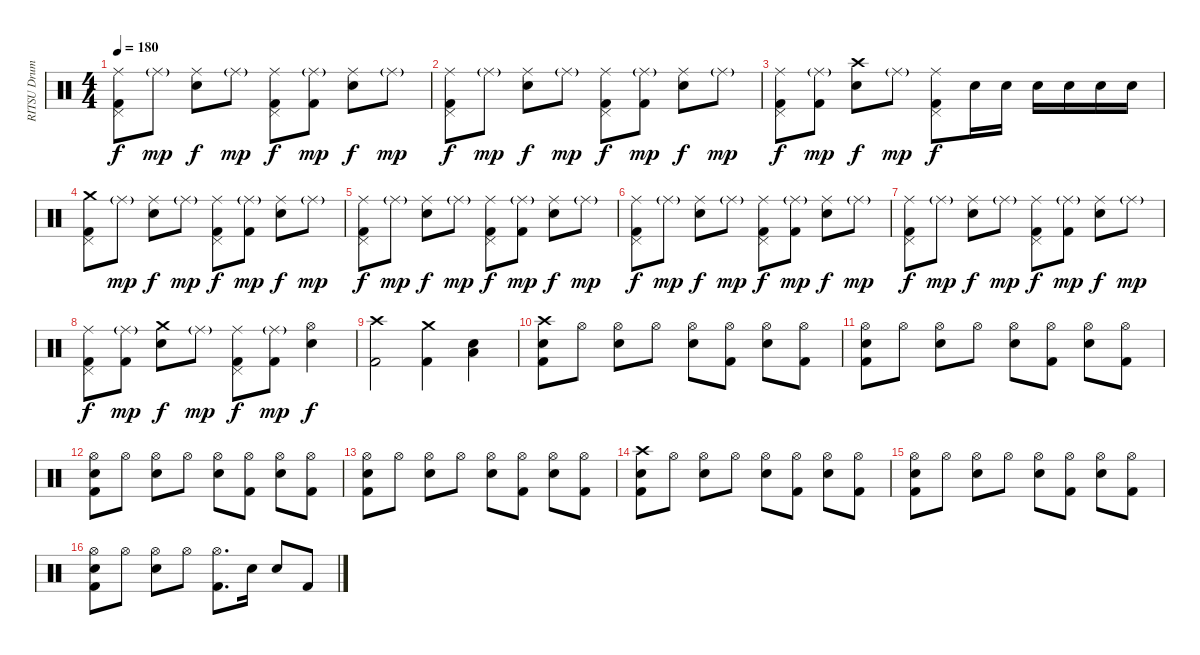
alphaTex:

\track ("RITSU Drums" "RITSU Drum") {instrument percussion}
\staff {score}
\articulation defaults
\ts (4 4)
\tempo 180
\clef neutral
\ks c
("Ride (middle)" "Pedal Hi-Hat (hit)" "Kick (hit) 2").8{dy f} "Ride (middle)"{g}.8{dy mp} ("Ride (middle)" "Electric Snare (hit)").8{dy f} "Ride (middle)"{g}.8{dy mp} ("Ride (middle)" "Pedal Hi-Hat (hit)" "Kick (hit) 2").8{dy f} ("Ride (middle)"{g} "Kick (hit) 2").8{dy mp} ("Ride (middle)" "Electric Snare (hit)").8{dy f} "Ride (middle)"{g}.8{dy mp} |
("Ride (middle)" "Pedal Hi-Hat (hit)" "Kick (hit) 2").8{dy f} "Ride (middle)"{g}.8{dy mp} ("Ride (middle)" "Electric Snare (hit)").8{dy f} "Ride (middle)"{g}.8{dy mp} ("Ride (middle)" "Pedal Hi-Hat (hit)" "Kick (hit) 2").8{dy f} ("Ride (middle)"{g} "Kick (hit) 2").8{dy mp} ("Ride (middle)" "Electric Snare (hit)").8{dy f} "Ride (middle)"{g}.8{dy mp} |
("Ride (middle)" "Pedal Hi-Hat (hit)" "Kick (hit) 2").8{dy f} ("Ride (middle)"{g} "Kick (hit) 2").8{dy mp} ("Crash high (hit)" "Electric Snare (hit)").8{dy f} "Ride (middle)"{g}.8{dy mp} ("Ride (middle)" "Pedal Hi-Hat (hit)" "Kick (hit) 2").8{dy f} "Electric Snare (hit)".16 "Electric Snare (hit)".16 "Electric Snare (hit)".16 "Electric Snare (hit)".16 "Electric Snare (hit)".16 "Electric Snare (hit)".16 |
("Crash medium (hit)" "Pedal Hi-Hat (hit)" "Kick (hit) 2").8 "Ride (middle)"{g}.8{dy mp} ("Ride (middle)" "Electric Snare (hit)").8{dy f} "Ride (middle)"{g}.8{dy mp} ("Ride (middle)" "Pedal Hi-Hat (hit)" "Kick (hit) 2").8{dy f} ("Ride (middle)"{g} "Kick (hit) 2").8{dy mp} ("Ride (middle)" "Electric Snare (hit)").8{dy f} "Ride (middle)"{g}.8{dy mp} |
("Ride (middle)" "Pedal Hi-Hat (hit)" "Kick (hit) 2").8{dy f} "Ride (middle)"{g}.8{dy mp} ("Ride (middle)" "Electric Snare (hit)").8{dy f} "Ride (middle)"{g}.8{dy mp} ("Ride (middle)" "Pedal Hi-Hat (hit)" "Kick (hit) 2").8{dy f} ("Ride (middle)"{g} "Kick (hit) 2").8{dy mp} ("Ride (middle)" "Electric Snare (hit)").8{dy f} "Ride (middle)"{g}.8{dy mp} |
("Ride (middle)" "Pedal Hi-Hat (hit)" "Kick (hit) 2").8{dy f} "Ride (middle)"{g}.8{dy mp} ("Ride (middle)" "Electric Snare (hit)").8{dy f} "Ride (middle)"{g}.8{dy mp} ("Ride (middle)" "Pedal Hi-Hat (hit)" "Kick (hit) 2").8{dy f} ("Ride (middle)"{g} "Kick (hit) 2").8{dy mp} ("Ride (middle)" "Electric Snare (hit)").8{dy f} "Ride (middle)"{g}.8{dy mp} |
("Ride (middle)" "Pedal Hi-Hat (hit)" "Kick (hit) 2").8{dy f} "Ride (middle)"{g}.8{dy mp} ("Ride (middle)" "Electric Snare (hit)").8{dy f} "Ride (middle)"{g}.8{dy mp} ("Ride (middle)" "Pedal Hi-Hat (hit)" "Kick (hit) 2").8{dy f} ("Ride (middle)"{g} "Kick (hit) 2").8{dy mp} ("Ride (middle)" "Electric Snare (hit)").8{dy f} "Ride (middle)"{g}.8{dy mp} |
("Ride (middle)" "Pedal Hi-Hat (hit)" "Kick (hit) 2").8{dy f} ("Ride (middle)"{g} "Kick (hit) 2").8{dy mp} ("Crash medium (hit)" "Electric Snare (hit)").8{dy f} "Ride (middle)"{g}.8{dy mp} ("Ride (middle)" "Pedal Hi-Hat (hit)" "Kick (hit) 2").8{dy f} ("Ride (middle)"{g} "Kick (hit) 2").8{dy mp} ("Hi-Hat (open)" "Electric Snare (hit)").4{dy f} |
("Crash high (hit)" "Kick (hit) 2").2 ("Crash medium (hit)" "Kick (hit) 2").4 ("Electric Snare (hit)" "Low Floor Tom (hit)").4 |
("Crash high (hit)" "Electric Snare (hit)" "Kick (hit) 2").8 "Hi-Hat (open)".8 ("Hi-Hat (open)" "Electric Snare (hit)").8 "Hi-Hat (open)".8 ("Hi-Hat (open)" "Electric Snare (hit)").8 ("Hi-Hat (open)" "Kick (hit) 2").8 ("Hi-Hat (open)" "Electric Snare (hit)").8 ("Hi-Hat (open)" "Kick (hit) 2").8 |
("Hi-Hat (open)" "Electric Snare (hit)" "Kick (hit) 2").8 "Hi-Hat (open)".8 ("Hi-Hat (open)" "Electric Snare (hit)").8 "Hi-Hat (open)".8 ("Hi-Hat (open)" "Electric Snare (hit)").8 ("Hi-Hat (open)" "Kick (hit) 2").8 ("Hi-Hat (open)" "Electric Snare (hit)").8 ("Hi-Hat (open)" "Kick (hit) 2").8 |
("Hi-Hat (open)" "Electric Snare (hit)" "Kick (hit) 2").8 "Hi-Hat (open)".8 ("Hi-Hat (open)" "Electric Snare (hit)").8 "Hi-Hat (open)".8 ("Hi-Hat (open)" "Electric Snare (hit)").8 ("Hi-Hat (open)" "Kick (hit) 2").8 ("Hi-Hat (open)" "Electric Snare (hit)").8 ("Hi-Hat (open)" "Kick (hit) 2").8 |
("Hi-Hat (open)" "Electric Snare (hit)" "Kick (hit) 2").8 "Hi-Hat (open)".8 ("Hi-Hat (open)" "Electric Snare (hit)").8 "Hi-Hat (open)".8 ("Hi-Hat (open)" "Electric Snare (hit)").8 ("Hi-Hat (open)" "Kick (hit) 2").8 ("Hi-Hat (open)" "Electric Snare (hit)").8 ("Hi-Hat (open)" "Kick (hit) 2").8 |
("Crash high (hit)" "Electric Snare (hit)" "Kick (hit) 2").8 "Hi-Hat (open)".8 ("Hi-Hat (open)" "Electric Snare (hit)").8 "Hi-Hat (open)".8 ("Hi-Hat (open)" "Electric Snare (hit)").8 ("Hi-Hat (open)" "Kick (hit) 2").8 ("Hi-Hat (open)" "Electric Snare (hit)").8 ("Hi-Hat (open)" "Kick (hit) 2").8 |
("Hi-Hat (open)" "Electric Snare (hit)" "Kick (hit) 2").8 "Hi-Hat (open)".8 ("Hi-Hat (open)" "Electric Snare (hit)").8 "Hi-Hat (open)".8 ("Hi-Hat (open)" "Electric Snare (hit)").8 ("Hi-Hat (open)" "Kick (hit) 2").8 ("Hi-Hat (open)" "Electric Snare (hit)").8 ("Hi-Hat (open)" "Kick (hit) 2").8 |
("Hi-Hat (open)" "Electric Snare (hit)" "Kick (hit) 2").8 "Hi-Hat (open)".8 ("Hi-Hat (open)" "Electric Snare (hit)").8 "Hi-Hat (open)".8 ("Hi-Hat (open)" "Kick (hit) 2").8{d} "Electric Snare (hit)".16 "Electric Snare (hit)".8 "Kick (hit) 2".8
